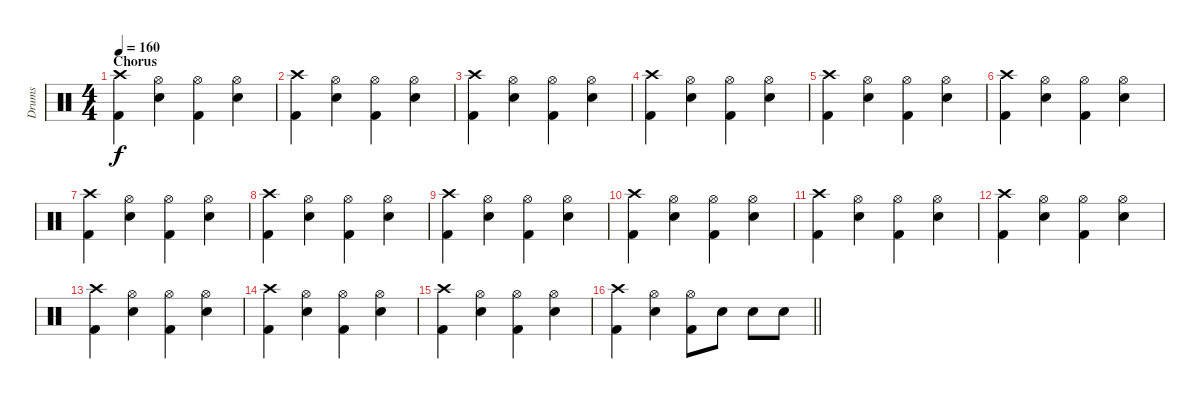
\track ("Drums" "Drums") {instrument percussion}
\staff {score}
\articulation defaults
\ts (4 4)
\section ("" "Chorus")
\tempo 160
\clef neutral
\ks c
("Crash high (hit)" "Kick (hit) 2").4{dy f} ("Hi-Hat (open)" "Electric Snare (hit)").4 ("Hi-Hat (open)" "Kick (hit) 2").4 ("Hi-Hat (open)" "Electric Snare (hit)").4 |
("Crash high (hit)" "Kick (hit) 2").4 ("Hi-Hat (open)" "Electric Snare (hit)").4 ("Hi-Hat (open)" "Kick (hit) 2").4 ("Hi-Hat (open)" "Electric Snare (hit)").4 |
("Crash high (hit)" "Kick (hit) 2").4 ("Hi-Hat (open)" "Electric Snare (hit)").4 ("Hi-Hat (open)" "Kick (hit) 2").4 ("Hi-Hat (open)" "Electric Snare (hit)").4 |
("Crash high (hit)" "Kick (hit) 2").4 ("Hi-Hat (open)" "Electric Snare (hit)").4 ("Hi-Hat (open)" "Kick (hit) 2").4 ("Hi-Hat (open)" "Electric Snare (hit)").4 |
("Crash high (hit)" "Kick (hit) 2").4 ("Hi-Hat (open)" "Electric Snare (hit)").4 ("Hi-Hat (open)" "Kick (hit) 2").4 ("Hi-Hat (open)" "Electric Snare (hit)").4 |
("Crash high (hit)" "Kick (hit) 2").4 ("Hi-Hat (open)" "Electric Snare (hit)").4 ("Hi-Hat (open)" "Kick (hit) 2").4 ("Hi-Hat (open)" "Electric Snare (hit)").4 |
("Crash high (hit)" "Kick (hit) 2").4 ("Hi-Hat (open)" "Electric Snare (hit)").4 ("Hi-Hat (open)" "Kick (hit) 2").4 ("Hi-Hat (open)" "Electric Snare (hit)").4 |
("Crash high (hit)" "Kick (hit) 2").4 ("Hi-Hat (open)" "Electric Snare (hit)").4 ("Hi-Hat (open)" "Kick (hit) 2").4 ("Hi-Hat (open)" "Electric Snare (hit)").4 |
("Crash high (hit)" "Kick (hit) 2").4 ("Hi-Hat (open)" "Electric Snare (hit)").4 ("Hi-Hat (open)" "Kick (hit) 2").4 ("Hi-Hat (open)" "Electric Snare (hit)").4 |
("Crash high (hit)" "Kick (hit) 2").4 ("Hi-Hat (open)" "Electric Snare (hit)").4 ("Hi-Hat (open)" "Kick (hit) 2").4 ("Hi-Hat (open)" "Electric Snare (hit)").4 |
("Crash high (hit)" "Kick (hit) 2").4 ("Hi-Hat (open)" "Electric Snare (hit)").4 ("Hi-Hat (open)" "Kick (hit) 2").4 ("Hi-Hat (open)" "Electric Snare (hit)").4 |
("Crash high (hit)" "Kick (hit) 2").4 ("Hi-Hat (open)" "Electric Snare (hit)").4 ("Hi-Hat (open)" "Kick (hit) 2").4 ("Hi-Hat (open)" "Electric Snare (hit)").4 |
("Crash high (hit)" "Kick (hit) 2").4 ("Hi-Hat (open)" "Electric Snare (hit)").4 ("Hi-Hat (open)" "Kick (hit) 2").4 ("Hi-Hat (open)" "Electric Snare (hit)").4 |
("Crash high (hit)" "Kick (hit) 2").4 ("Hi-Hat (open)" "Electric Snare (hit)").4 ("Hi-Hat (open)" "Kick (hit) 2").4 ("Hi-Hat (open)" "Electric Snare (hit)").4 |
("Crash high (hit)" "Kick (hit) 2").4 ("Hi-Hat (open)" "Electric Snare (hit)").4 ("Hi-Hat (open)" "Kick (hit) 2").4 ("Hi-Hat (open)" "Electric Snare (hit)").4 |
\barLineRight lightlight
("Crash high (hit)" "Kick (hit) 2").4 ("Hi-Hat (open)" "Electric Snare (hit)").4 ("Hi-Hat (open)" "Kick (hit) 2").8 "Electric Snare (hit)".8 "Electric Snare (hit)".8 "Electric Snare (hit)".8
